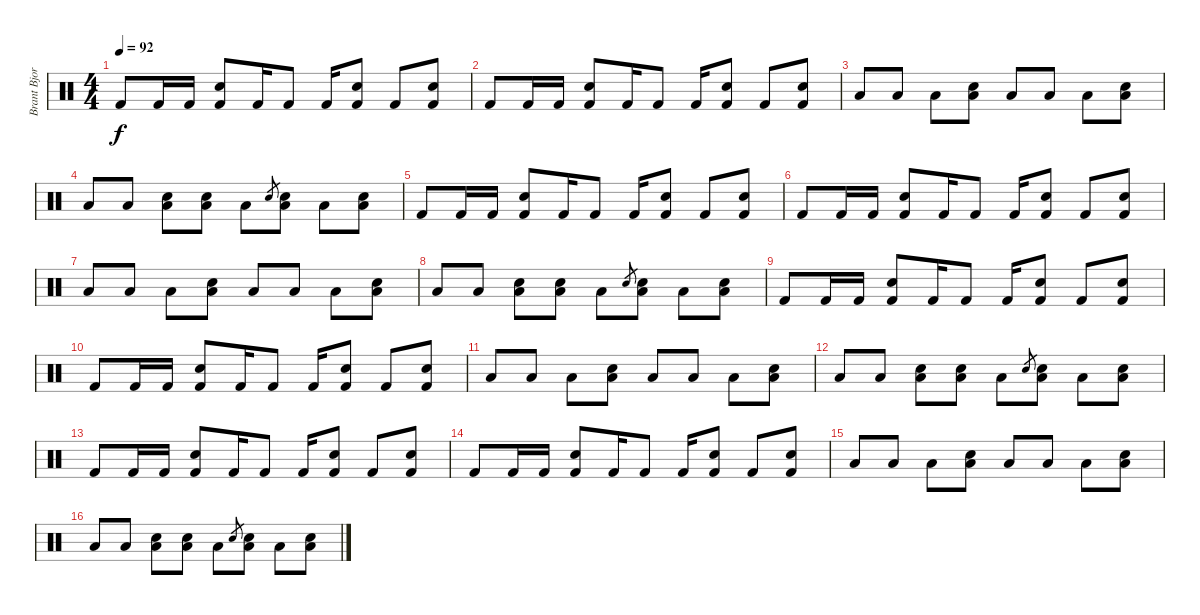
\track ("Brant Bjork" "Brant Bjor") {instrument percussion}
\staff {score}
\articulation defaults
\ts (4 4)
\tempo 92
\clef neutral
\ks c "Kick (hit) 2".8{dy f} "Kick (hit) 2".16 "Kick (hit) 2".16
("Snare (hit) 2" "Kick (hit) 2").8 "Kick (hit) 2".16 "Kick (hit) 2".8 "Kick (hit) 2".16 ("Snare (hit) 2" "Kick (hit) 2").8 "Kick (hit) 2".8 ("Snare (hit) 2" "Kick (hit) 2").8 |
"Kick (hit) 2".8 "Kick (hit) 2".16 "Kick (hit) 2".16 ("Snare (hit) 2" "Kick (hit) 2").8 "Kick (hit) 2".16 "Kick (hit) 2".8 "Kick (hit) 2".16 ("Snare (hit) 2" "Kick (hit) 2").8 "Kick (hit) 2".8 ("Snare (hit) 2" "Kick (hit) 2").8 |
"Low Floor Tom (hit)".8 "Low Floor Tom (hit)".8 "Low Floor Tom (hit)".8 ("Snare (hit) 2" "Low Floor Tom (hit)").8 "Low Floor Tom (hit)".8 "Low Floor Tom (hit)".8 "Low Floor Tom (hit)".8 ("Snare (hit) 2" "Low Floor Tom (hit)").8 |
"Low Floor Tom (hit)".8 "Low Floor Tom (hit)".8 ("Snare (hit) 2" "Low Floor Tom (hit)").8 ("Snare (hit) 2" "Low Floor Tom (hit)").8 "Low Floor Tom (hit)".8 "Snare (hit) 2".8{gr} ("Snare (hit) 2" "Low Floor Tom (hit)").8 "Low Floor Tom (hit)".8 ("Snare (hit) 2" "Low Floor Tom (hit)").8 |
"Kick (hit) 2".8 "Kick (hit) 2".16 "Kick (hit) 2".16 ("Snare (hit) 2" "Kick (hit) 2").8 "Kick (hit) 2".16 "Kick (hit) 2".8 "Kick (hit) 2".16 ("Snare (hit) 2" "Kick (hit) 2").8 "Kick (hit) 2".8 ("Snare (hit) 2" "Kick (hit) 2").8 |
"Kick (hit) 2".8 "Kick (hit) 2".16 "Kick (hit) 2".16 ("Snare (hit) 2" "Kick (hit) 2").8 "Kick (hit) 2".16 "Kick (hit) 2".8 "Kick (hit) 2".16 ("Snare (hit) 2" "Kick (hit) 2").8 "Kick (hit) 2".8 ("Snare (hit) 2" "Kick (hit) 2").8 |
"Low Floor Tom (hit)".8 "Low Floor Tom (hit)".8 "Low Floor Tom (hit)".8 ("Snare (hit) 2" "Low Floor Tom (hit)").8 "Low Floor Tom (hit)".8 "Low Floor Tom (hit)".8 "Low Floor Tom (hit)".8 ("Snare (hit) 2" "Low Floor Tom (hit)").8 |
"Low Floor Tom (hit)".8 "Low Floor Tom (hit)".8 ("Snare (hit) 2" "Low Floor Tom (hit)").8 ("Snare (hit) 2" "Low Floor Tom (hit)").8 "Low Floor Tom (hit)".8 "Snare (hit) 2".8{gr} ("Snare (hit) 2" "Low Floor Tom (hit)").8 "Low Floor Tom (hit)".8 ("Snare (hit) 2" "Low Floor Tom (hit)").8 |
"Kick (hit) 2".8 "Kick (hit) 2".16 "Kick (hit) 2".16 ("Snare (hit) 2" "Kick (hit) 2").8 "Kick (hit) 2".16 "Kick (hit) 2".8 "Kick (hit) 2".16 ("Snare (hit) 2" "Kick (hit) 2").8 "Kick (hit) 2".8 ("Snare (hit) 2" "Kick (hit) 2").8 |
"Kick (hit) 2".8 "Kick (hit) 2".16 "Kick (hit) 2".16 ("Snare (hit) 2" "Kick (hit) 2").8 "Kick (hit) 2".16 "Kick (hit) 2".8 "Kick (hit) 2".16 ("Snare (hit) 2" "Kick (hit) 2").8 "Kick (hit) 2".8 ("Snare (hit) 2" "Kick (hit) 2").8 |
"Low Floor Tom (hit)".8 "Low Floor Tom (hit)".8 "Low Floor Tom (hit)".8 ("Snare (hit) 2" "Low Floor Tom (hit)").8 "Low Floor Tom (hit)".8 "Low Floor Tom (hit)".8 "Low Floor Tom (hit)".8 ("Snare (hit) 2" "Low Floor Tom (hit)").8 |
"Low Floor Tom (hit)".8 "Low Floor Tom (hit)".8 ("Snare (hit) 2" "Low Floor Tom (hit)").8 ("Snare (hit) 2" "Low Floor Tom (hit)").8 "Low Floor Tom (hit)".8 "Snare (hit) 2".8{gr} ("Snare (hit) 2" "Low Floor Tom (hit)").8 "Low Floor Tom (hit)".8 ("Snare (hit) 2" "Low Floor Tom (hit)").8 |
"Kick (hit) 2".8 "Kick (hit) 2".16 "Kick (hit) 2".16 ("Snare (hit) 2" "Kick (hit) 2").8 "Kick (hit) 2".16 "Kick (hit) 2".8 "Kick (hit) 2".16 ("Snare (hit) 2" "Kick (hit) 2").8 "Kick (hit) 2".8 ("Snare (hit) 2" "Kick (hit) 2").8 |
"Kick (hit) 2".8 "Kick (hit) 2".16 "Kick (hit) 2".16 ("Snare (hit) 2" "Kick (hit) 2").8 "Kick (hit) 2".16 "Kick (hit) 2".8 "Kick (hit) 2".16 ("Snare (hit) 2" "Kick (hit) 2").8 "Kick (hit) 2".8 ("Snare (hit) 2" "Kick (hit) 2").8 |
"Low Floor Tom (hit)".8 "Low Floor Tom (hit)".8 "Low Floor Tom (hit)".8 ("Snare (hit) 2" "Low Floor Tom (hit)").8 "Low Floor Tom (hit)".8 "Low Floor Tom (hit)".8 "Low Floor Tom (hit)".8 ("Snare (hit) 2" "Low Floor Tom (hit)").8 |
"Low Floor Tom (hit)".8 "Low Floor Tom (hit)".8 ("Snare (hit) 2" "Low Floor Tom (hit)").8 ("Snare (hit) 2" "Low Floor Tom (hit)").8 "Low Floor Tom (hit)".8 "Snare (hit) 2".8{gr} ("Snare (hit) 2" "Low Floor Tom (hit)").8 "Low Floor Tom (hit)".8 ("Snare (hit) 2" "Low Floor Tom (hit)").8
